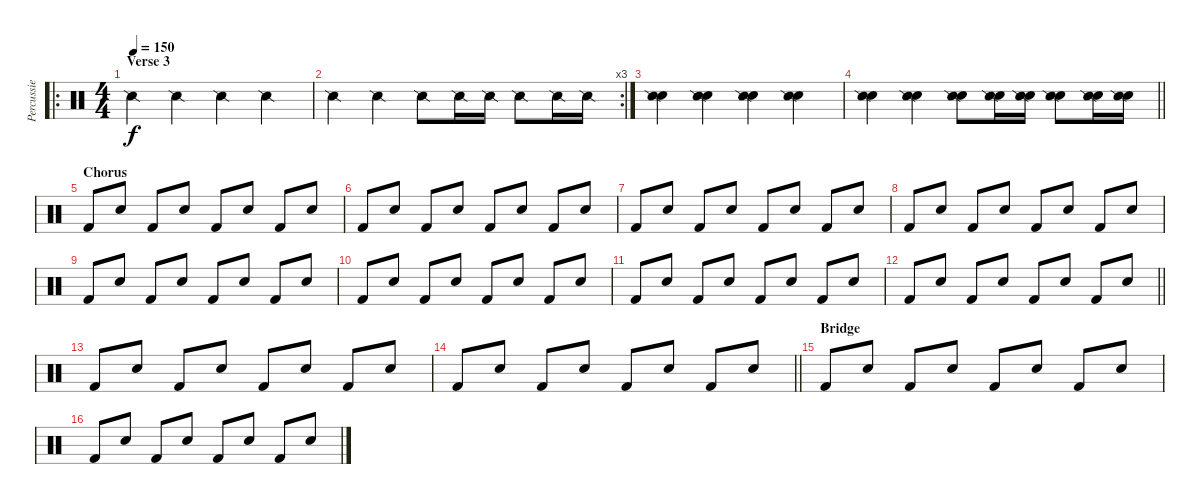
\track ("Percussie" "Percussie") {instrument percussion}
\staff {score}
\articulation defaults
\ro
\ts (4 4)
\section ("" "Verse 3")
\tempo 150
\clef neutral
\ks c "Snare (side stick) 2".4{dy f} "Snare (side stick) 2".4 "Snare (side stick) 2".4 "Snare (side stick) 2".4
|
\rc 3 "Snare (side stick) 2".4 "Snare (side stick) 2".4 "Snare (side stick) 2".8 "Snare (side stick) 2".16 "Snare (side stick) 2".16 "Snare (side stick) 2".8 "Snare (side stick) 2".16 "Snare (side stick) 2".16
|
("Snare (hit) 2" "Snare (side stick) 2").4 ("Snare (hit) 2" "Snare (side stick) 2").4 ("Snare (hit) 2" "Snare (side stick) 2").4 ("Snare (hit) 2" "Snare (side stick) 2").4 |
\barLineRight lightlight
("Snare (hit) 2" "Snare (side stick) 2").4 ("Snare (hit) 2" "Snare (side stick) 2").4 ("Snare (hit) 2" "Snare (side stick) 2").8 ("Snare (hit) 2" "Snare (side stick) 2").16 ("Snare (hit) 2" "Snare (side stick) 2").16 ("Snare (hit) 2" "Snare (side stick) 2").8 ("Snare (hit) 2" "Snare (side stick) 2").16 ("Snare (hit) 2" "Snare (side stick) 2").16 |
\section ("" "Chorus")
"Kick (hit) 2".8 "Snare (hit) 2".8 "Kick (hit) 2".8 "Snare (hit) 2".8 "Kick (hit) 2".8 "Snare (hit) 2".8 "Kick (hit) 2".8 "Snare (hit) 2".8 |
"Kick (hit) 2".8 "Snare (hit) 2".8 "Kick (hit) 2".8 "Snare (hit) 2".8 "Kick (hit) 2".8 "Snare (hit) 2".8 "Kick (hit) 2".8 "Snare (hit) 2".8 |
"Kick (hit) 2".8 "Snare (hit) 2".8 "Kick (hit) 2".8 "Snare (hit) 2".8 "Kick (hit) 2".8 "Snare (hit) 2".8 "Kick (hit) 2".8 "Snare (hit) 2".8 |
"Kick (hit) 2".8 "Snare (hit) 2".8 "Kick (hit) 2".8 "Snare (hit) 2".8 "Kick (hit) 2".8 "Snare (hit) 2".8 "Kick (hit) 2".8 "Snare (hit) 2".8 |
"Kick (hit) 2".8 "Snare (hit) 2".8 "Kick (hit) 2".8 "Snare (hit) 2".8 "Kick (hit) 2".8 "Snare (hit) 2".8 "Kick (hit) 2".8 "Snare (hit) 2".8 |
"Kick (hit) 2".8 "Snare (hit) 2".8 "Kick (hit) 2".8 "Snare (hit) 2".8 "Kick (hit) 2".8 "Snare (hit) 2".8 "Kick (hit) 2".8 "Snare (hit) 2".8 |
"Kick (hit) 2".8 "Snare (hit) 2".8 "Kick (hit) 2".8 "Snare (hit) 2".8 "Kick (hit) 2".8 "Snare (hit) 2".8 "Kick (hit) 2".8 "Snare (hit) 2".8 |
\barLineRight lightlight "Kick (hit) 2".8 "Snare (hit) 2".8 "Kick (hit) 2".8 "Snare (hit) 2".8 "Kick (hit) 2".8 "Snare (hit) 2".8 "Kick (hit) 2".8 "Snare (hit) 2".8
|
"Kick (hit) 2".8 "Snare (hit) 2".8 "Kick (hit) 2".8 "Snare (hit) 2".8 "Kick (hit) 2".8 "Snare (hit) 2".8 "Kick (hit) 2".8 "Snare (hit) 2".8 |
\barLineRight lightlight "Kick (hit) 2".8 "Snare (hit) 2".8 "Kick (hit) 2".8 "Snare (hit) 2".8 "Kick (hit) 2".8 "Snare (hit) 2".8 "Kick (hit) 2".8 "Snare (hit) 2".8
|
\section ("" "Bridge")
"Kick (hit) 2".8 "Snare (hit) 2".8 "Kick (hit) 2".8 "Snare (hit) 2".8 "Kick (hit) 2".8 "Snare (hit) 2".8 "Kick (hit) 2".8 "Snare (hit) 2".8 |
"Kick (hit) 2".8 "Snare (hit) 2".8 "Kick (hit) 2".8 "Snare (hit) 2".8 "Kick (hit) 2".8 "Snare (hit) 2".8 "Kick (hit) 2".8 "Snare (hit) 2".8
